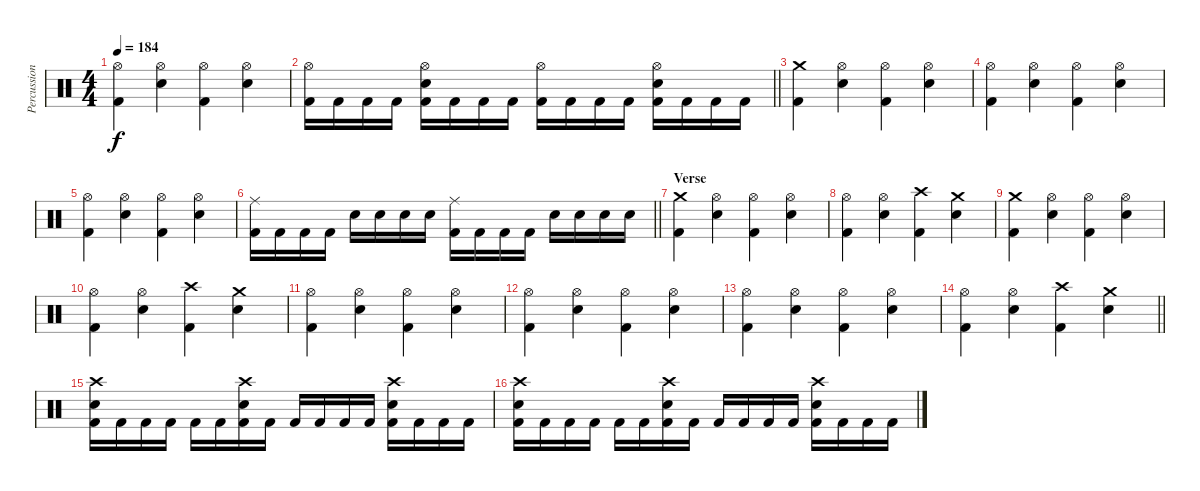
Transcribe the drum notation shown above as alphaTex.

\track ("Percussion" "Percussion") {instrument percussion}
\staff {score}
\articulation defaults
\ts (4 4)
\tempo 184
\clef neutral
\ks c
("Hi-Hat (open)" "Kick (hit) 2").4{dy f} ("Hi-Hat (open)" "Electric Snare (hit)").4 ("Hi-Hat (open)" "Kick (hit) 2").4 ("Hi-Hat (open)" "Electric Snare (hit)").4 |
\barLineRight lightlight
("Hi-Hat (open)" "Kick (hit) 2").16 "Kick (hit) 2".16 "Kick (hit) 2".16 "Kick (hit) 2".16 ("Hi-Hat (open)" "Electric Snare (hit)" "Kick (hit) 2").16 "Kick (hit) 2".16 "Kick (hit) 2".16 "Kick (hit) 2".16 ("Hi-Hat (open)" "Kick (hit) 2").16 "Kick (hit) 2".16 "Kick (hit) 2".16 "Kick (hit) 2".16 ("Hi-Hat (open)" "Electric Snare (hit)" "Kick (hit) 2").16 "Kick (hit) 2".16 "Kick (hit) 2".16 "Kick (hit) 2".16 |
("Crash medium (hit)" "Kick (hit) 2").4 ("Hi-Hat (open)" "Electric Snare (hit)").4 ("Hi-Hat (open)" "Kick (hit) 2").4 ("Hi-Hat (open)" "Electric Snare (hit)").4 |
("Hi-Hat (open)" "Kick (hit) 2").4 ("Hi-Hat (open)" "Electric Snare (hit)").4 ("Hi-Hat (open)" "Kick (hit) 2").4 ("Hi-Hat (open)" "Electric Snare (hit)").4 |
("Hi-Hat (open)" "Kick (hit) 2").4 ("Hi-Hat (open)" "Electric Snare (hit)").4 ("Hi-Hat (open)" "Kick (hit) 2").4 ("Hi-Hat (open)" "Electric Snare (hit)").4 |
\barLineRight lightlight
("Ride (middle)" "Kick (hit) 2").16 "Kick (hit) 2".16 "Kick (hit) 2".16 "Kick (hit) 2".16 "Electric Snare (hit)".16 "Electric Snare (hit)".16 "Electric Snare (hit)".16 "Electric Snare (hit)".16 ("Ride (middle)" "Kick (hit) 2").16 "Kick (hit) 2".16 "Kick (hit) 2".16 "Kick (hit) 2".16 "Electric Snare (hit)".16 "Electric Snare (hit)".16 "Electric Snare (hit)".16 "Electric Snare (hit)".16 |
\section ("" "Verse")
("Crash medium (hit)" "Kick (hit) 2").4 ("Hi-Hat (open)" "Electric Snare (hit)").4 ("Hi-Hat (open)" "Kick (hit) 2").4 ("Hi-Hat (open)" "Electric Snare (hit)").4 |
("Hi-Hat (open)" "Kick (hit) 2").4 ("Hi-Hat (open)" "Electric Snare (hit)").4 ("Crash high (hit)" "Kick (hit) 2").4 ("Crash medium (hit)" "Electric Snare (hit)").4 |
("Crash medium (hit)" "Kick (hit) 2").4 ("Hi-Hat (open)" "Electric Snare (hit)").4 ("Hi-Hat (open)" "Kick (hit) 2").4 ("Hi-Hat (open)" "Electric Snare (hit)").4 |
("Hi-Hat (open)" "Kick (hit) 2").4 ("Hi-Hat (open)" "Electric Snare (hit)").4 ("Crash high (hit)" "Kick (hit) 2").4 ("Crash medium (hit)" "Electric Snare (hit)").4 |
("Hi-Hat (open)" "Kick (hit) 2").4 ("Hi-Hat (open)" "Electric Snare (hit)").4 ("Hi-Hat (open)" "Kick (hit) 2").4 ("Hi-Hat (open)" "Electric Snare (hit)").4 |
("Hi-Hat (open)" "Kick (hit) 2").4 ("Hi-Hat (open)" "Electric Snare (hit)").4 ("Hi-Hat (open)" "Kick (hit) 2").4 ("Hi-Hat (open)" "Electric Snare (hit)").4 |
("Hi-Hat (open)" "Kick (hit) 2").4 ("Hi-Hat (open)" "Electric Snare (hit)").4 ("Hi-Hat (open)" "Kick (hit) 2").4 ("Hi-Hat (open)" "Electric Snare (hit)").4 |
\barLineRight lightlight
("Hi-Hat (open)" "Kick (hit) 2").4 ("Hi-Hat (open)" "Electric Snare (hit)").4 ("Crash high (hit)" "Kick (hit) 2").4 ("Crash medium (hit)" "Electric Snare (hit)").4 |
("Crash high (hit)" "Electric Snare (hit)" "Kick (hit) 2").16 "Kick (hit) 2".16 "Kick (hit) 2".16 "Kick (hit) 2".16 "Kick (hit) 2".16 "Kick (hit) 2".16 ("Crash high (hit)" "Electric Snare (hit)" "Kick (hit) 2").16 "Kick (hit) 2".16 "Kick (hit) 2".16 "Kick (hit) 2".16 "Kick (hit) 2".16 "Kick (hit) 2".16 ("Crash high (hit)" "Electric Snare (hit)" "Kick (hit) 2").16 "Kick (hit) 2".16 "Kick (hit) 2".16 "Kick (hit) 2".16 |
("Crash high (hit)" "Electric Snare (hit)" "Kick (hit) 2").16 "Kick (hit) 2".16 "Kick (hit) 2".16 "Kick (hit) 2".16 "Kick (hit) 2".16 "Kick (hit) 2".16 ("Crash high (hit)" "Electric Snare (hit)" "Kick (hit) 2").16 "Kick (hit) 2".16 "Kick (hit) 2".16 "Kick (hit) 2".16 "Kick (hit) 2".16 "Kick (hit) 2".16 ("Crash high (hit)" "Electric Snare (hit)" "Kick (hit) 2").16 "Kick (hit) 2".16 "Kick (hit) 2".16 "Kick (hit) 2".16
